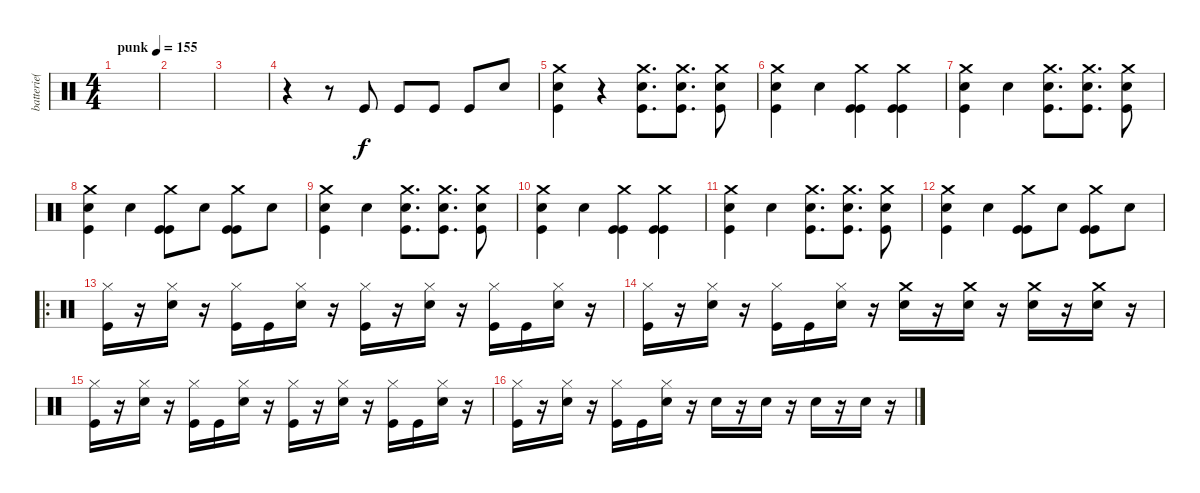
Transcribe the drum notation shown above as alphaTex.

\track ("batterie( Shawn )" "batterie( ") {instrument percussion}
\staff {score}
\articulation defaults
\ts (4 4)
\tempo (155 "punk")
\clef neutral
\ks c
|
|
|
r.4 r.8 "Kick (hit)".8 "Kick (hit)".8 "Kick (hit)".8 "Kick (hit)".8 "Snare (hit) 2".8 |
("Crash medium (hit)" "Snare (hit) 2" "Kick (hit)").4 r.4 ("Crash medium (hit)" "Snare (hit) 2" "Kick (hit)").8{d} ("Crash medium (hit)" "Snare (hit) 2" "Kick (hit)").8{d} ("Crash medium (hit)" "Snare (hit) 2" "Kick (hit)").8 |
("Crash medium (hit)" "Snare (hit) 2" "Kick (hit)").4 "Snare (hit) 2".4 ("Crash medium (hit)" "Kick (hit)" "Kick (hit)").4 ("Crash medium (hit)" "Kick (hit)" "Kick (hit)").4 |
("Crash medium (hit)" "Snare (hit) 2" "Kick (hit)").4 "Snare (hit) 2".4 ("Crash medium (hit)" "Snare (hit) 2" "Kick (hit)").8{d} ("Crash medium (hit)" "Snare (hit) 2" "Kick (hit)").8{d} ("Crash medium (hit)" "Snare (hit) 2" "Kick (hit)").8 |
("Crash medium (hit)" "Snare (hit) 2" "Kick (hit)").4 "Snare (hit) 2".4 ("Crash medium (hit)" "Kick (hit)" "Kick (hit)").8 "Snare (hit) 2".8 ("Crash medium (hit)" "Kick (hit)" "Kick (hit)").8 "Snare (hit) 2".8 |
("Crash medium (hit)" "Snare (hit) 2" "Kick (hit)").4 "Snare (hit) 2".4 ("Crash medium (hit)" "Snare (hit) 2" "Kick (hit)").8{d} ("Crash medium (hit)" "Snare (hit) 2" "Kick (hit)").8{d} ("Crash medium (hit)" "Snare (hit) 2" "Kick (hit)").8 |
("Crash medium (hit)" "Snare (hit) 2" "Kick (hit)").4 "Snare (hit) 2".4 ("Crash medium (hit)" "Kick (hit)" "Kick (hit)").4 ("Crash medium (hit)" "Kick (hit)" "Kick (hit)").4 |
("Crash medium (hit)" "Snare (hit) 2" "Kick (hit)").4 "Snare (hit) 2".4 ("Crash medium (hit)" "Snare (hit) 2" "Kick (hit)").8{d} ("Crash medium (hit)" "Snare (hit) 2" "Kick (hit)").8{d} ("Crash medium (hit)" "Snare (hit) 2" "Kick (hit)").8 |
("Crash medium (hit)" "Snare (hit) 2" "Kick (hit)").4 "Snare (hit) 2".4 ("Crash medium (hit)" "Kick (hit)" "Kick (hit)").8 "Snare (hit) 2".8 ("Crash medium (hit)" "Kick (hit)" "Kick (hit)").8 "Snare (hit) 2".8 |
\ro
("Hi-Hat (closed)" "Kick (hit)").16 r.16 ("Hi-Hat (closed)" "Snare (hit) 2").16 r.16 ("Hi-Hat (closed)" "Kick (hit)").16 "Kick (hit)".16 ("Hi-Hat (closed)" "Snare (hit) 2").16 r.16 ("Hi-Hat (closed)" "Kick (hit)").16 r.16 ("Hi-Hat (closed)" "Snare (hit) 2").16 r.16 ("Hi-Hat (closed)" "Kick (hit)").16 "Kick (hit)".16 ("Hi-Hat (closed)" "Snare (hit) 2").16 r.16 |
("Hi-Hat (closed)" "Kick (hit)").16 r.16 ("Hi-Hat (closed)" "Snare (hit) 2").16 r.16 ("Hi-Hat (closed)" "Kick (hit)").16 "Kick (hit)".16 ("Hi-Hat (closed)" "Snare (hit) 2").16 r.16 ("Crash medium (hit)" "Snare (hit) 2").16 r.16 ("Crash medium (hit)" "Snare (hit) 2").16 r.16 ("Crash medium (hit)" "Snare (hit) 2").16 r.16 ("Crash medium (hit)" "Snare (hit) 2").16 r.16 |
("Hi-Hat (closed)" "Kick (hit)").16 r.16 ("Hi-Hat (closed)" "Snare (hit) 2").16 r.16 ("Hi-Hat (closed)" "Kick (hit)").16 "Kick (hit)".16 ("Hi-Hat (closed)" "Snare (hit) 2").16 r.16 ("Hi-Hat (closed)" "Kick (hit)").16 r.16 ("Hi-Hat (closed)" "Snare (hit) 2").16 r.16 ("Hi-Hat (closed)" "Kick (hit)").16 "Kick (hit)".16 ("Hi-Hat (closed)" "Snare (hit) 2").16 r.16 |
("Hi-Hat (closed)" "Kick (hit)").16 r.16 ("Hi-Hat (closed)" "Snare (hit) 2").16 r.16 ("Hi-Hat (closed)" "Kick (hit)").16 "Kick (hit)".16 ("Hi-Hat (closed)" "Snare (hit) 2").16 r.16 "Snare (hit) 2".16 r.16 "Snare (hit) 2".16 r.16 "Snare (hit) 2".16 r.16 "Snare (hit) 2".16 r.16
